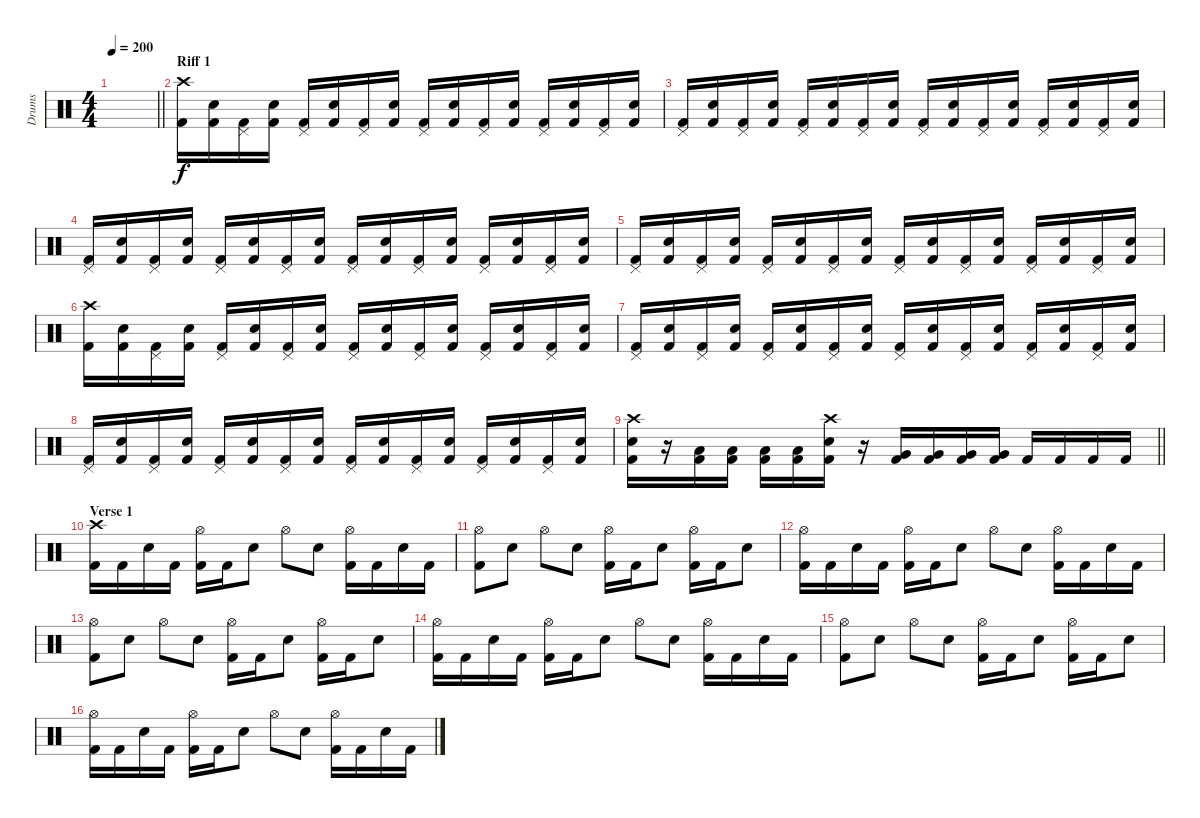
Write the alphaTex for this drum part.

\track ("Drums" "Drums") {instrument percussion}
\staff {score}
\articulation defaults
\ts (4 4)
\tempo 200
\clef neutral
\barLineRight lightlight
\ks c
|
\section ("" "Riff 1")
("Crash high (hit)" "Kick (hit) 2").16 ("Snare (hit) 2" "Kick (hit) 2").16 ("Pedal Hi-Hat (hit)" "Kick (hit) 2").16 ("Snare (hit) 2" "Kick (hit) 2").16 ("Pedal Hi-Hat (hit)" "Kick (hit) 2").16 ("Snare (hit) 2" "Kick (hit) 2").16 ("Pedal Hi-Hat (hit)" "Kick (hit) 2").16 ("Snare (hit) 2" "Kick (hit) 2").16 ("Pedal Hi-Hat (hit)" "Kick (hit) 2").16 ("Snare (hit) 2" "Kick (hit) 2").16 ("Pedal Hi-Hat (hit)" "Kick (hit) 2").16 ("Snare (hit) 2" "Kick (hit) 2").16 ("Pedal Hi-Hat (hit)" "Kick (hit) 2").16 ("Snare (hit) 2" "Kick (hit) 2").16 ("Pedal Hi-Hat (hit)" "Kick (hit) 2").16 ("Snare (hit) 2" "Kick (hit) 2").16 |
("Pedal Hi-Hat (hit)" "Kick (hit) 2").16 ("Snare (hit) 2" "Kick (hit) 2").16 ("Pedal Hi-Hat (hit)" "Kick (hit) 2").16 ("Snare (hit) 2" "Kick (hit) 2").16 ("Pedal Hi-Hat (hit)" "Kick (hit) 2").16 ("Snare (hit) 2" "Kick (hit) 2").16 ("Pedal Hi-Hat (hit)" "Kick (hit) 2").16 ("Snare (hit) 2" "Kick (hit) 2").16 ("Pedal Hi-Hat (hit)" "Kick (hit) 2").16 ("Snare (hit) 2" "Kick (hit) 2").16 ("Pedal Hi-Hat (hit)" "Kick (hit) 2").16 ("Snare (hit) 2" "Kick (hit) 2").16 ("Pedal Hi-Hat (hit)" "Kick (hit) 2").16 ("Snare (hit) 2" "Kick (hit) 2").16 ("Pedal Hi-Hat (hit)" "Kick (hit) 2").16 ("Snare (hit) 2" "Kick (hit) 2").16 |
("Pedal Hi-Hat (hit)" "Kick (hit) 2").16 ("Snare (hit) 2" "Kick (hit) 2").16 ("Pedal Hi-Hat (hit)" "Kick (hit) 2").16 ("Snare (hit) 2" "Kick (hit) 2").16 ("Pedal Hi-Hat (hit)" "Kick (hit) 2").16 ("Snare (hit) 2" "Kick (hit) 2").16 ("Pedal Hi-Hat (hit)" "Kick (hit) 2").16 ("Snare (hit) 2" "Kick (hit) 2").16 ("Pedal Hi-Hat (hit)" "Kick (hit) 2").16 ("Snare (hit) 2" "Kick (hit) 2").16 ("Pedal Hi-Hat (hit)" "Kick (hit) 2").16 ("Snare (hit) 2" "Kick (hit) 2").16 ("Pedal Hi-Hat (hit)" "Kick (hit) 2").16 ("Snare (hit) 2" "Kick (hit) 2").16 ("Pedal Hi-Hat (hit)" "Kick (hit) 2").16 ("Snare (hit) 2" "Kick (hit) 2").16 |
("Pedal Hi-Hat (hit)" "Kick (hit) 2").16 ("Snare (hit) 2" "Kick (hit) 2").16 ("Pedal Hi-Hat (hit)" "Kick (hit) 2").16 ("Snare (hit) 2" "Kick (hit) 2").16 ("Pedal Hi-Hat (hit)" "Kick (hit) 2").16 ("Snare (hit) 2" "Kick (hit) 2").16 ("Pedal Hi-Hat (hit)" "Kick (hit) 2").16 ("Snare (hit) 2" "Kick (hit) 2").16 ("Pedal Hi-Hat (hit)" "Kick (hit) 2").16 ("Snare (hit) 2" "Kick (hit) 2").16 ("Pedal Hi-Hat (hit)" "Kick (hit) 2").16 ("Snare (hit) 2" "Kick (hit) 2").16 ("Pedal Hi-Hat (hit)" "Kick (hit) 2").16 ("Snare (hit) 2" "Kick (hit) 2").16 ("Pedal Hi-Hat (hit)" "Kick (hit) 2").16 ("Snare (hit) 2" "Kick (hit) 2").16 |
("Crash high (hit)" "Kick (hit) 2").16 ("Snare (hit) 2" "Kick (hit) 2").16 ("Pedal Hi-Hat (hit)" "Kick (hit) 2").16 ("Snare (hit) 2" "Kick (hit) 2").16 ("Pedal Hi-Hat (hit)" "Kick (hit) 2").16 ("Snare (hit) 2" "Kick (hit) 2").16 ("Pedal Hi-Hat (hit)" "Kick (hit) 2").16 ("Snare (hit) 2" "Kick (hit) 2").16 ("Pedal Hi-Hat (hit)" "Kick (hit) 2").16 ("Snare (hit) 2" "Kick (hit) 2").16 ("Pedal Hi-Hat (hit)" "Kick (hit) 2").16 ("Snare (hit) 2" "Kick (hit) 2").16 ("Pedal Hi-Hat (hit)" "Kick (hit) 2").16 ("Snare (hit) 2" "Kick (hit) 2").16 ("Pedal Hi-Hat (hit)" "Kick (hit) 2").16 ("Snare (hit) 2" "Kick (hit) 2").16 |
("Pedal Hi-Hat (hit)" "Kick (hit) 2").16 ("Snare (hit) 2" "Kick (hit) 2").16 ("Pedal Hi-Hat (hit)" "Kick (hit) 2").16 ("Snare (hit) 2" "Kick (hit) 2").16 ("Pedal Hi-Hat (hit)" "Kick (hit) 2").16 ("Snare (hit) 2" "Kick (hit) 2").16 ("Pedal Hi-Hat (hit)" "Kick (hit) 2").16 ("Snare (hit) 2" "Kick (hit) 2").16 ("Pedal Hi-Hat (hit)" "Kick (hit) 2").16 ("Snare (hit) 2" "Kick (hit) 2").16 ("Pedal Hi-Hat (hit)" "Kick (hit) 2").16 ("Snare (hit) 2" "Kick (hit) 2").16 ("Pedal Hi-Hat (hit)" "Kick (hit) 2").16 ("Snare (hit) 2" "Kick (hit) 2").16 ("Pedal Hi-Hat (hit)" "Kick (hit) 2").16 ("Snare (hit) 2" "Kick (hit) 2").16 |
("Pedal Hi-Hat (hit)" "Kick (hit) 2").16 ("Snare (hit) 2" "Kick (hit) 2").16 ("Pedal Hi-Hat (hit)" "Kick (hit) 2").16 ("Snare (hit) 2" "Kick (hit) 2").16 ("Pedal Hi-Hat (hit)" "Kick (hit) 2").16 ("Snare (hit) 2" "Kick (hit) 2").16 ("Pedal Hi-Hat (hit)" "Kick (hit) 2").16 ("Snare (hit) 2" "Kick (hit) 2").16 ("Pedal Hi-Hat (hit)" "Kick (hit) 2").16 ("Snare (hit) 2" "Kick (hit) 2").16 ("Pedal Hi-Hat (hit)" "Kick (hit) 2").16 ("Snare (hit) 2" "Kick (hit) 2").16 ("Pedal Hi-Hat (hit)" "Kick (hit) 2").16 ("Snare (hit) 2" "Kick (hit) 2").16 ("Pedal Hi-Hat (hit)" "Kick (hit) 2").16 ("Snare (hit) 2" "Kick (hit) 2").16 |
\barLineRight lightlight
("Crash high (hit)" "Snare (hit) 2" "Kick (hit) 2").16 r.16 ("Low Tom (hit)" "Kick (hit) 2").16 ("Low Tom (hit)" "Kick (hit) 2").16 ("Low Tom (hit)" "Kick (hit) 2").16 ("Low Tom (hit)" "Kick (hit) 2").16 ("Crash high (hit)" "Snare (hit) 2" "Kick (hit) 2").16 r.16 ("Very Low Tom (hit)" "Kick (hit) 2").16 ("Very Low Tom (hit)" "Kick (hit) 2").16 ("Very Low Tom (hit)" "Kick (hit) 2").16 ("Very Low Tom (hit)" "Kick (hit) 2").16 "Kick (hit) 2".16 "Kick (hit) 2".16 "Kick (hit) 2".16 "Kick (hit) 2".16 |
\section ("" "Verse 1")
("Crash high (hit)" "Kick (hit) 2").16 "Kick (hit) 2".16 "Snare (hit) 2".16 "Kick (hit) 2".16 ("Hi-Hat (open)" "Kick (hit) 2").16 "Kick (hit) 2".16 "Snare (hit) 2".8 "Hi-Hat (open)".8 "Snare (hit) 2".8 ("Hi-Hat (open)" "Kick (hit) 2").16 "Kick (hit) 2".16 "Snare (hit) 2".16 "Kick (hit) 2".16 |
("Hi-Hat (open)" "Kick (hit) 2").8 "Snare (hit) 2".8 "Hi-Hat (open)".8 "Snare (hit) 2".8 ("Hi-Hat (open)" "Kick (hit) 2").16 "Kick (hit) 2".16 "Snare (hit) 2".8 ("Hi-Hat (open)" "Kick (hit) 2").16 "Kick (hit) 2".16 "Snare (hit) 2".8 |
("Hi-Hat (open)" "Kick (hit) 2").16 "Kick (hit) 2".16 "Snare (hit) 2".16 "Kick (hit) 2".16 ("Hi-Hat (open)" "Kick (hit) 2").16 "Kick (hit) 2".16 "Snare (hit) 2".8 "Hi-Hat (open)".8 "Snare (hit) 2".8 ("Hi-Hat (open)" "Kick (hit) 2").16 "Kick (hit) 2".16 "Snare (hit) 2".16 "Kick (hit) 2".16 |
("Hi-Hat (open)" "Kick (hit) 2").8 "Snare (hit) 2".8 "Hi-Hat (open)".8 "Snare (hit) 2".8 ("Hi-Hat (open)" "Kick (hit) 2").16 "Kick (hit) 2".16 "Snare (hit) 2".8 ("Hi-Hat (open)" "Kick (hit) 2").16 "Kick (hit) 2".16 "Snare (hit) 2".8 |
("Hi-Hat (open)" "Kick (hit) 2").16 "Kick (hit) 2".16 "Snare (hit) 2".16 "Kick (hit) 2".16 ("Hi-Hat (open)" "Kick (hit) 2").16 "Kick (hit) 2".16 "Snare (hit) 2".8 "Hi-Hat (open)".8 "Snare (hit) 2".8 ("Hi-Hat (open)" "Kick (hit) 2").16 "Kick (hit) 2".16 "Snare (hit) 2".16 "Kick (hit) 2".16 |
("Hi-Hat (open)" "Kick (hit) 2").8 "Snare (hit) 2".8 "Hi-Hat (open)".8 "Snare (hit) 2".8 ("Hi-Hat (open)" "Kick (hit) 2").16 "Kick (hit) 2".16 "Snare (hit) 2".8 ("Hi-Hat (open)" "Kick (hit) 2").16 "Kick (hit) 2".16 "Snare (hit) 2".8 |
("Hi-Hat (open)" "Kick (hit) 2").16 "Kick (hit) 2".16 "Snare (hit) 2".16 "Kick (hit) 2".16 ("Hi-Hat (open)" "Kick (hit) 2").16 "Kick (hit) 2".16 "Snare (hit) 2".8 "Hi-Hat (open)".8 "Snare (hit) 2".8 ("Hi-Hat (open)" "Kick (hit) 2").16 "Kick (hit) 2".16 "Snare (hit) 2".16 "Kick (hit) 2".16
